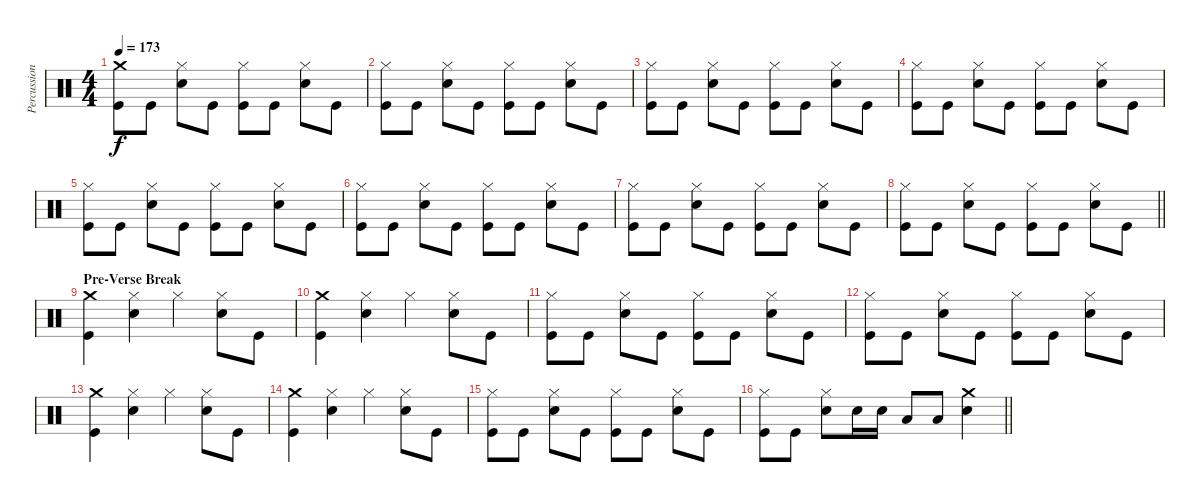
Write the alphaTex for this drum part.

\track ("Percussion" "Percussion") {instrument percussion}
\staff {score}
\articulation defaults
\ts (4 4)
\tempo 173
\clef neutral
\ks c
("Crash medium (hit)" "Kick (hit)").8{dy f} "Kick (hit)".8 ("Hi-Hat (closed)" "Electric Snare (hit)").8 "Kick (hit)".8 ("Hi-Hat (closed)" "Kick (hit)").8 "Kick (hit)".8 ("Hi-Hat (closed)" "Electric Snare (hit)").8 "Kick (hit)".8 |
("Hi-Hat (closed)" "Kick (hit)").8 "Kick (hit)".8 ("Hi-Hat (closed)" "Electric Snare (hit)").8 "Kick (hit)".8 ("Hi-Hat (closed)" "Kick (hit)").8 "Kick (hit)".8 ("Hi-Hat (closed)" "Electric Snare (hit)").8 "Kick (hit)".8 |
("Hi-Hat (closed)" "Kick (hit)").8 "Kick (hit)".8 ("Hi-Hat (closed)" "Electric Snare (hit)").8 "Kick (hit)".8 ("Hi-Hat (closed)" "Kick (hit)").8 "Kick (hit)".8 ("Hi-Hat (closed)" "Electric Snare (hit)").8 "Kick (hit)".8 |
("Hi-Hat (closed)" "Kick (hit)").8 "Kick (hit)".8 ("Hi-Hat (closed)" "Electric Snare (hit)").8 "Kick (hit)".8 ("Hi-Hat (closed)" "Kick (hit)").8 "Kick (hit)".8 ("Hi-Hat (closed)" "Electric Snare (hit)").8 "Kick (hit)".8 |
("Hi-Hat (closed)" "Kick (hit)").8 "Kick (hit)".8 ("Hi-Hat (closed)" "Electric Snare (hit)").8 "Kick (hit)".8 ("Hi-Hat (closed)" "Kick (hit)").8 "Kick (hit)".8 ("Hi-Hat (closed)" "Electric Snare (hit)").8 "Kick (hit)".8 |
("Hi-Hat (closed)" "Kick (hit)").8 "Kick (hit)".8 ("Hi-Hat (closed)" "Electric Snare (hit)").8 "Kick (hit)".8 ("Hi-Hat (closed)" "Kick (hit)").8 "Kick (hit)".8 ("Hi-Hat (closed)" "Electric Snare (hit)").8 "Kick (hit)".8 |
("Hi-Hat (closed)" "Kick (hit)").8 "Kick (hit)".8 ("Hi-Hat (closed)" "Electric Snare (hit)").8 "Kick (hit)".8 ("Hi-Hat (closed)" "Kick (hit)").8 "Kick (hit)".8 ("Hi-Hat (closed)" "Electric Snare (hit)").8 "Kick (hit)".8 |
\barLineRight lightlight
("Hi-Hat (closed)" "Kick (hit)").8 "Kick (hit)".8 ("Hi-Hat (closed)" "Electric Snare (hit)").8 "Kick (hit)".8 ("Hi-Hat (closed)" "Kick (hit)").8 "Kick (hit)".8 ("Hi-Hat (closed)" "Electric Snare (hit)").8 "Kick (hit)".8 |
\section ("" "Pre-Verse Break")
("Crash medium (hit)" "Kick (hit)").4 ("Hi-Hat (closed)" "Electric Snare (hit)").4 "Hi-Hat (closed)".4 ("Hi-Hat (closed)" "Electric Snare (hit)").8 "Kick (hit)".8 |
("Crash medium (hit)" "Kick (hit)").4 ("Hi-Hat (closed)" "Electric Snare (hit)").4 "Hi-Hat (closed)".4 ("Hi-Hat (closed)" "Electric Snare (hit)").8 "Kick (hit)".8 |
("Hi-Hat (closed)" "Kick (hit)").8 "Kick (hit)".8 ("Hi-Hat (closed)" "Electric Snare (hit)").8 "Kick (hit)".8 ("Hi-Hat (closed)" "Kick (hit)").8 "Kick (hit)".8 ("Hi-Hat (closed)" "Electric Snare (hit)").8 "Kick (hit)".8 |
("Hi-Hat (closed)" "Kick (hit)").8 "Kick (hit)".8 ("Hi-Hat (closed)" "Electric Snare (hit)").8 "Kick (hit)".8 ("Hi-Hat (closed)" "Kick (hit)").8 "Kick (hit)".8 ("Hi-Hat (closed)" "Electric Snare (hit)").8 "Kick (hit)".8 |
("Crash medium (hit)" "Kick (hit)").4 ("Hi-Hat (closed)" "Electric Snare (hit)").4 "Hi-Hat (closed)".4 ("Hi-Hat (closed)" "Electric Snare (hit)").8 "Kick (hit)".8 |
("Crash medium (hit)" "Kick (hit)").4 ("Hi-Hat (closed)" "Electric Snare (hit)").4 "Hi-Hat (closed)".4 ("Hi-Hat (closed)" "Electric Snare (hit)").8 "Kick (hit)".8 |
("Hi-Hat (closed)" "Kick (hit)").8 "Kick (hit)".8 ("Hi-Hat (closed)" "Electric Snare (hit)").8 "Kick (hit)".8 ("Hi-Hat (closed)" "Kick (hit)").8 "Kick (hit)".8 ("Hi-Hat (closed)" "Electric Snare (hit)").8 "Kick (hit)".8 |
\barLineRight lightlight
("Hi-Hat (closed)" "Kick (hit)").8 "Kick (hit)".8 ("Hi-Hat (closed)" "Electric Snare (hit)").8 "Electric Snare (hit)".16 "Electric Snare (hit)".16 "Low Tom (hit)".8 "Low Tom (hit)".8 ("Crash medium (hit)" "Electric Snare (hit)").4
